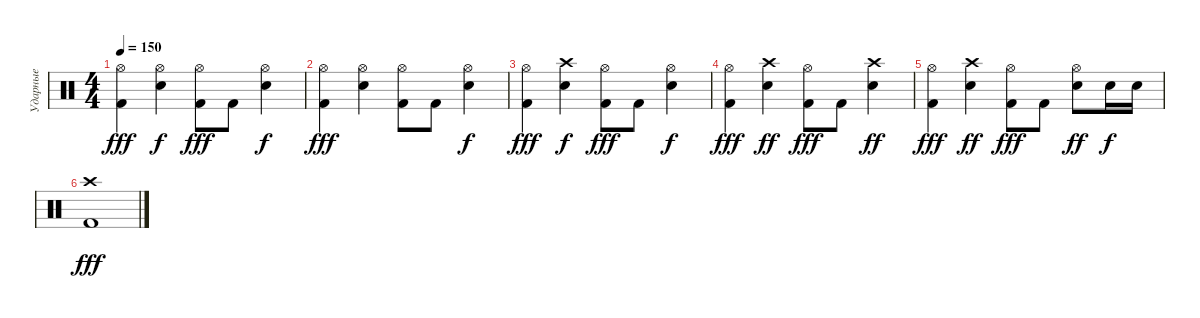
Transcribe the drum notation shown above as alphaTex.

\track ("Ударные" "Ударные") {instrument percussion}
\staff {score}
\articulation defaults
\ts (4 4)
\tempo 150
\clef neutral
\ks c
("Kick (hit) 2" "Hi-Hat (open)").4{dy fff} ("Snare (hit) 2" "Hi-Hat (open)").4{dy f} ("Kick (hit) 2" "Hi-Hat (open)").8{dy fff} "Kick (hit) 2".8 ("Snare (hit) 2" "Hi-Hat (open)").4{dy f} |
("Kick (hit) 2" "Hi-Hat (open)").4{dy fff} ("Snare (hit) 2" "Hi-Hat (open)").4 ("Kick (hit) 2" "Hi-Hat (open)").8 "Kick (hit) 2".8 ("Snare (hit) 2" "Hi-Hat (open)").4{dy f} |
("Kick (hit) 2" "Hi-Hat (open)").4{dy fff} ("Snare (hit) 2" "Crash high (hit)").4{dy f} ("Kick (hit) 2" "Hi-Hat (open)").8{dy fff} "Kick (hit) 2".8 ("Snare (hit) 2" "Hi-Hat (open)").4{dy f} |
("Kick (hit) 2" "Hi-Hat (open)").4{dy fff} ("Snare (hit) 2" "Crash high (hit)").4{dy ff} ("Kick (hit) 2" "Hi-Hat (open)").8{dy fff} "Kick (hit) 2".8 ("Snare (hit) 2" "Crash high (hit)").4{dy ff} |
("Kick (hit) 2" "Hi-Hat (open)").4{dy fff} ("Snare (hit) 2" "Crash high (hit)").4{dy ff} ("Kick (hit) 2" "Hi-Hat (open)").8{dy fff} "Kick (hit) 2".8 ("Snare (hit) 2" "Hi-Hat (open)").8{dy ff} "Snare (hit) 2".16{dy f} "Snare (hit) 2".16 |
("Kick (hit) 2" "Crash high (hit)").1{dy fff}
